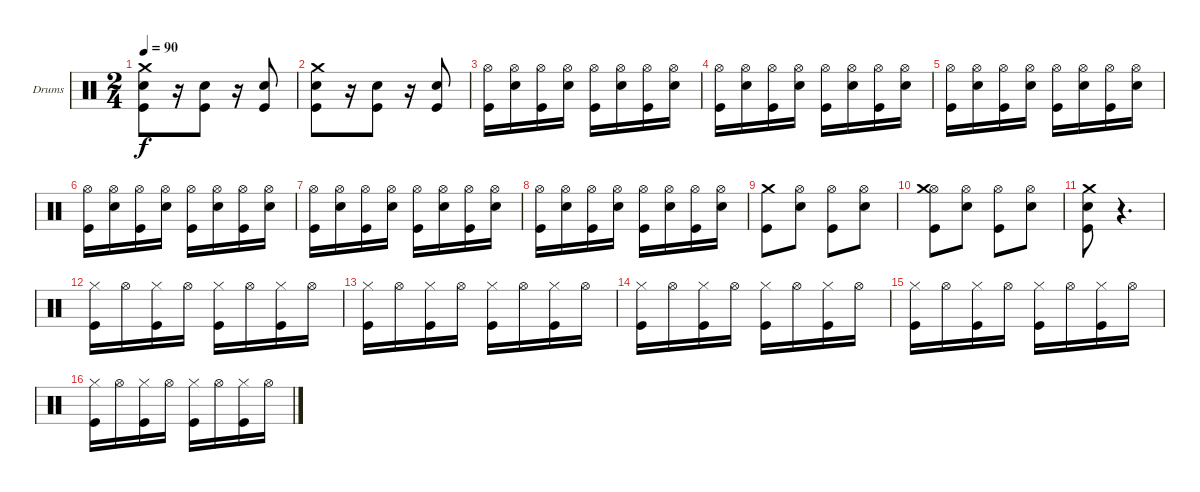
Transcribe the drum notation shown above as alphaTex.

\bracketExtendMode groupsimilarinstruments
\firstSystemTrackNameOrientation horizontal
\otherSystemsTrackNameOrientation horizontal
\track ("Барабаны" "Drums") {instrument percussion}
\staff {score}
\articulation defaults
\ts (2 4)
\tempo 90
\clef neutral
\ks c
("Snare (hit) 2" "Kick (hit)" "Crash medium (hit)").8{dy f} r.16 ("Snare (hit) 2" "Kick (hit)").8 r.16 ("Snare (hit) 2" "Kick (hit)").8 |
("Kick (hit)" "Snare (hit) 2" "Crash medium (hit)").8 r.16 ("Snare (hit) 2" "Kick (hit)").8 r.16 ("Snare (hit) 2" "Kick (hit)").8 |
("Kick (hit)" "Hi-Hat (open)").16 ("Snare (hit) 2" "Hi-Hat (open)").16 ("Kick (hit)" "Hi-Hat (open)").16 ("Snare (hit) 2" "Hi-Hat (open)").16 ("Kick (hit)" "Hi-Hat (open)").16 ("Snare (hit) 2" "Hi-Hat (open)").16 ("Kick (hit)" "Hi-Hat (open)").16 ("Snare (hit) 2" "Hi-Hat (open)").16 |
("Kick (hit)" "Hi-Hat (open)").16 ("Snare (hit) 2" "Hi-Hat (open)").16 ("Kick (hit)" "Hi-Hat (open)").16 ("Snare (hit) 2" "Hi-Hat (open)").16 ("Kick (hit)" "Hi-Hat (open)").16 ("Snare (hit) 2" "Hi-Hat (open)").16 ("Kick (hit)" "Hi-Hat (open)").16 ("Snare (hit) 2" "Hi-Hat (open)").16 |
("Kick (hit)" "Hi-Hat (open)").16 ("Snare (hit) 2" "Hi-Hat (open)").16 ("Kick (hit)" "Hi-Hat (open)").16 ("Snare (hit) 2" "Hi-Hat (open)").16 ("Kick (hit)" "Hi-Hat (open)").16 ("Snare (hit) 2" "Hi-Hat (open)").16 ("Kick (hit)" "Hi-Hat (open)").16 ("Snare (hit) 2" "Hi-Hat (open)").16 |
("Kick (hit)" "Hi-Hat (open)").16 ("Snare (hit) 2" "Hi-Hat (open)").16 ("Kick (hit)" "Hi-Hat (open)").16 ("Snare (hit) 2" "Hi-Hat (open)").16 ("Kick (hit)" "Hi-Hat (open)").16 ("Snare (hit) 2" "Hi-Hat (open)").16 ("Kick (hit)" "Hi-Hat (open)").16 ("Snare (hit) 2" "Hi-Hat (open)").16 |
("Kick (hit)" "Hi-Hat (open)").16 ("Snare (hit) 2" "Hi-Hat (open)").16 ("Kick (hit)" "Hi-Hat (open)").16 ("Snare (hit) 2" "Hi-Hat (open)").16 ("Kick (hit)" "Hi-Hat (open)").16 ("Snare (hit) 2" "Hi-Hat (open)").16 ("Kick (hit)" "Hi-Hat (open)").16 ("Snare (hit) 2" "Hi-Hat (open)").16 |
("Kick (hit)" "Hi-Hat (open)").16 ("Snare (hit) 2" "Hi-Hat (open)").16 ("Kick (hit)" "Hi-Hat (open)").16 ("Snare (hit) 2" "Hi-Hat (open)").16 ("Kick (hit)" "Hi-Hat (open)").16 ("Snare (hit) 2" "Hi-Hat (open)").16 ("Kick (hit)" "Hi-Hat (open)").16 ("Snare (hit) 2" "Hi-Hat (open)").16 |
("Kick (hit)" "Crash medium (hit)").8 ("Snare (hit) 2" "Hi-Hat (open)").8 ("Kick (hit)" "Hi-Hat (open)").8 ("Snare (hit) 2" "Hi-Hat (open)").8 |
("Kick (hit)" "Hi-Hat (open)" "Crash medium (hit)").8 ("Snare (hit) 2" "Hi-Hat (open)").8 ("Kick (hit)" "Hi-Hat (open)").8 ("Snare (hit) 2" "Hi-Hat (open)").8 |
("Kick (hit)" "Snare (hit) 2" "Crash medium (hit)").8 r.4{d} |
("Kick (hit)" "Hi-Hat (closed)").16 "Hi-Hat (open)".16 ("Kick (hit)" "Hi-Hat (closed)").16 "Hi-Hat (open)".16 ("Kick (hit)" "Hi-Hat (closed)").16 "Hi-Hat (open)".16 ("Kick (hit)" "Hi-Hat (closed)").16 "Hi-Hat (open)".16 |
("Kick (hit)" "Hi-Hat (closed)").16 "Hi-Hat (open)".16 ("Kick (hit)" "Hi-Hat (closed)").16 "Hi-Hat (open)".16 ("Kick (hit)" "Hi-Hat (closed)").16 "Hi-Hat (open)".16 ("Kick (hit)" "Hi-Hat (closed)").16 "Hi-Hat (open)".16 |
("Kick (hit)" "Hi-Hat (closed)").16 "Hi-Hat (open)".16 ("Kick (hit)" "Hi-Hat (closed)").16 "Hi-Hat (open)".16 ("Kick (hit)" "Hi-Hat (closed)").16 "Hi-Hat (open)".16 ("Kick (hit)" "Hi-Hat (closed)").16 "Hi-Hat (open)".16 |
("Kick (hit)" "Hi-Hat (closed)").16 "Hi-Hat (open)".16 ("Kick (hit)" "Hi-Hat (closed)").16 "Hi-Hat (open)".16 ("Kick (hit)" "Hi-Hat (closed)").16 "Hi-Hat (open)".16 ("Kick (hit)" "Hi-Hat (closed)").16 "Hi-Hat (open)".16 |
("Kick (hit)" "Hi-Hat (closed)").16 "Hi-Hat (open)".16 ("Kick (hit)" "Hi-Hat (closed)").16 "Hi-Hat (open)".16 ("Kick (hit)" "Hi-Hat (closed)").16 "Hi-Hat (open)".16 ("Kick (hit)" "Hi-Hat (closed)").16 "Hi-Hat (open)".16
